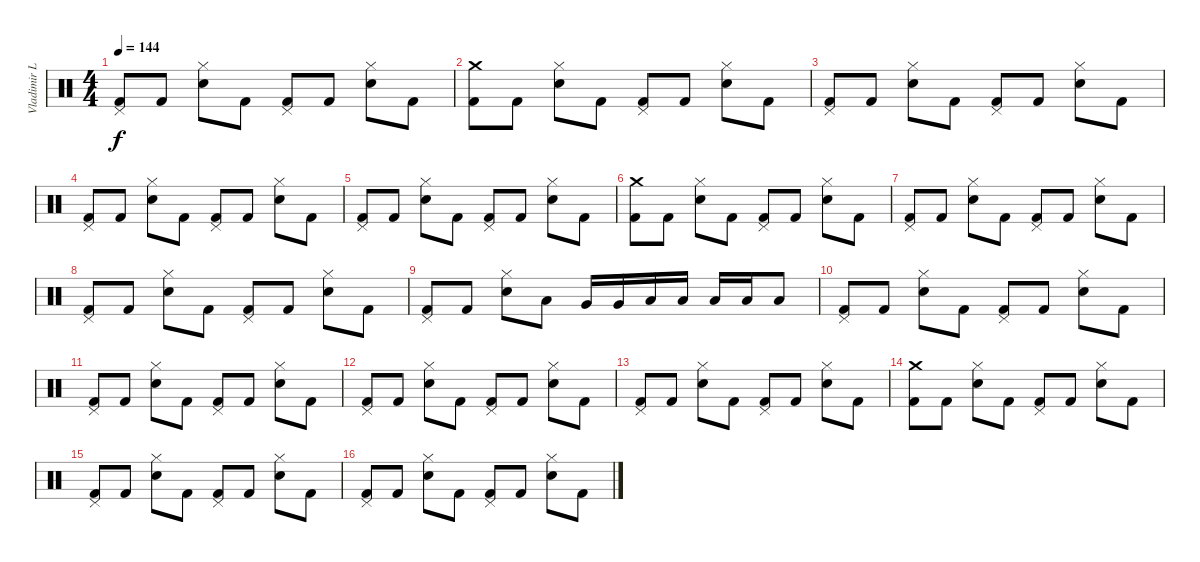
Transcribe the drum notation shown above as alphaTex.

\track ("Vladimir L." "Vladimir L") {solo instrument percussion}
\staff {score}
\articulation defaults
\ts (4 4)
\tempo 144
\clef neutral
\ks c
("Kick (hit) 2" "Pedal Hi-Hat (hit)").8{dy f} "Kick (hit) 2".8 ("Electric Snare (hit)" "Hi-Hat (closed)").8 "Kick (hit) 2".8 ("Kick (hit) 2" "Pedal Hi-Hat (hit)").8 "Kick (hit) 2".8 ("Electric Snare (hit)" "Hi-Hat (closed)").8 "Kick (hit) 2".8 |
("Kick (hit) 2" "Crash medium (hit)").8 "Kick (hit) 2".8 ("Electric Snare (hit)" "Hi-Hat (closed)").8 "Kick (hit) 2".8 ("Kick (hit) 2" "Pedal Hi-Hat (hit)").8 "Kick (hit) 2".8 ("Electric Snare (hit)" "Hi-Hat (closed)").8 "Kick (hit) 2".8 |
("Kick (hit) 2" "Pedal Hi-Hat (hit)").8 "Kick (hit) 2".8 ("Electric Snare (hit)" "Hi-Hat (closed)").8 "Kick (hit) 2".8 ("Kick (hit) 2" "Pedal Hi-Hat (hit)").8 "Kick (hit) 2".8 ("Electric Snare (hit)" "Hi-Hat (closed)").8 "Kick (hit) 2".8 |
("Kick (hit) 2" "Pedal Hi-Hat (hit)").8 "Kick (hit) 2".8 ("Electric Snare (hit)" "Hi-Hat (closed)").8 "Kick (hit) 2".8 ("Kick (hit) 2" "Pedal Hi-Hat (hit)").8 "Kick (hit) 2".8 ("Electric Snare (hit)" "Hi-Hat (closed)").8 "Kick (hit) 2".8 |
("Kick (hit) 2" "Pedal Hi-Hat (hit)").8 "Kick (hit) 2".8 ("Electric Snare (hit)" "Hi-Hat (closed)").8 "Kick (hit) 2".8 ("Kick (hit) 2" "Pedal Hi-Hat (hit)").8 "Kick (hit) 2".8 ("Electric Snare (hit)" "Hi-Hat (closed)").8 "Kick (hit) 2".8 |
("Kick (hit) 2" "Crash medium (hit)").8 "Kick (hit) 2".8 ("Electric Snare (hit)" "Hi-Hat (closed)").8 "Kick (hit) 2".8 ("Kick (hit) 2" "Pedal Hi-Hat (hit)").8 "Kick (hit) 2".8 ("Electric Snare (hit)" "Hi-Hat (closed)").8 "Kick (hit) 2".8 |
("Kick (hit) 2" "Pedal Hi-Hat (hit)").8 "Kick (hit) 2".8 ("Electric Snare (hit)" "Hi-Hat (closed)").8 "Kick (hit) 2".8 ("Kick (hit) 2" "Pedal Hi-Hat (hit)").8 "Kick (hit) 2".8 ("Electric Snare (hit)" "Hi-Hat (closed)").8 "Kick (hit) 2".8 |
("Kick (hit) 2" "Pedal Hi-Hat (hit)").8 "Kick (hit) 2".8 ("Electric Snare (hit)" "Hi-Hat (closed)").8 "Kick (hit) 2".8 ("Kick (hit) 2" "Pedal Hi-Hat (hit)").8 "Kick (hit) 2".8 ("Electric Snare (hit)" "Hi-Hat (closed)").8 "Kick (hit) 2".8 |
("Kick (hit) 2" "Pedal Hi-Hat (hit)").8 "Kick (hit) 2".8 ("Electric Snare (hit)" "Hi-Hat (closed)").8 "Low Floor Tom (hit)".8 "Very Low Tom (hit)".16 "Very Low Tom (hit)".16 "Low Floor Tom (hit)".16 "Low Floor Tom (hit)".16 "Low Tom (hit)".16 "Low Tom (hit)".16 "Low Tom (hit)".8 |
("Kick (hit) 2" "Pedal Hi-Hat (hit)").8 "Kick (hit) 2".8 ("Electric Snare (hit)" "Hi-Hat (closed)").8 "Kick (hit) 2".8 ("Kick (hit) 2" "Pedal Hi-Hat (hit)").8 "Kick (hit) 2".8 ("Electric Snare (hit)" "Hi-Hat (closed)").8 "Kick (hit) 2".8 |
("Kick (hit) 2" "Pedal Hi-Hat (hit)").8 "Kick (hit) 2".8 ("Electric Snare (hit)" "Hi-Hat (closed)").8 "Kick (hit) 2".8 ("Kick (hit) 2" "Pedal Hi-Hat (hit)").8 "Kick (hit) 2".8 ("Electric Snare (hit)" "Hi-Hat (closed)").8 "Kick (hit) 2".8 |
("Kick (hit) 2" "Pedal Hi-Hat (hit)").8 "Kick (hit) 2".8 ("Electric Snare (hit)" "Hi-Hat (closed)").8 "Kick (hit) 2".8 ("Kick (hit) 2" "Pedal Hi-Hat (hit)").8 "Kick (hit) 2".8 ("Electric Snare (hit)" "Hi-Hat (closed)").8 "Kick (hit) 2".8 |
("Kick (hit) 2" "Pedal Hi-Hat (hit)").8 "Kick (hit) 2".8 ("Electric Snare (hit)" "Hi-Hat (closed)").8 "Kick (hit) 2".8 ("Kick (hit) 2" "Pedal Hi-Hat (hit)").8 "Kick (hit) 2".8 ("Electric Snare (hit)" "Hi-Hat (closed)").8 "Kick (hit) 2".8 |
("Kick (hit) 2" "Crash medium (hit)").8 "Kick (hit) 2".8 ("Electric Snare (hit)" "Hi-Hat (closed)").8 "Kick (hit) 2".8 ("Kick (hit) 2" "Pedal Hi-Hat (hit)").8 "Kick (hit) 2".8 ("Electric Snare (hit)" "Hi-Hat (closed)").8 "Kick (hit) 2".8 |
("Kick (hit) 2" "Pedal Hi-Hat (hit)").8 "Kick (hit) 2".8 ("Electric Snare (hit)" "Hi-Hat (closed)").8 "Kick (hit) 2".8 ("Kick (hit) 2" "Pedal Hi-Hat (hit)").8 "Kick (hit) 2".8 ("Electric Snare (hit)" "Hi-Hat (closed)").8 "Kick (hit) 2".8 |
("Kick (hit) 2" "Pedal Hi-Hat (hit)").8 "Kick (hit) 2".8 ("Electric Snare (hit)" "Hi-Hat (closed)").8 "Kick (hit) 2".8 ("Kick (hit) 2" "Pedal Hi-Hat (hit)").8 "Kick (hit) 2".8 ("Electric Snare (hit)" "Hi-Hat (closed)").8 "Kick (hit) 2".8
